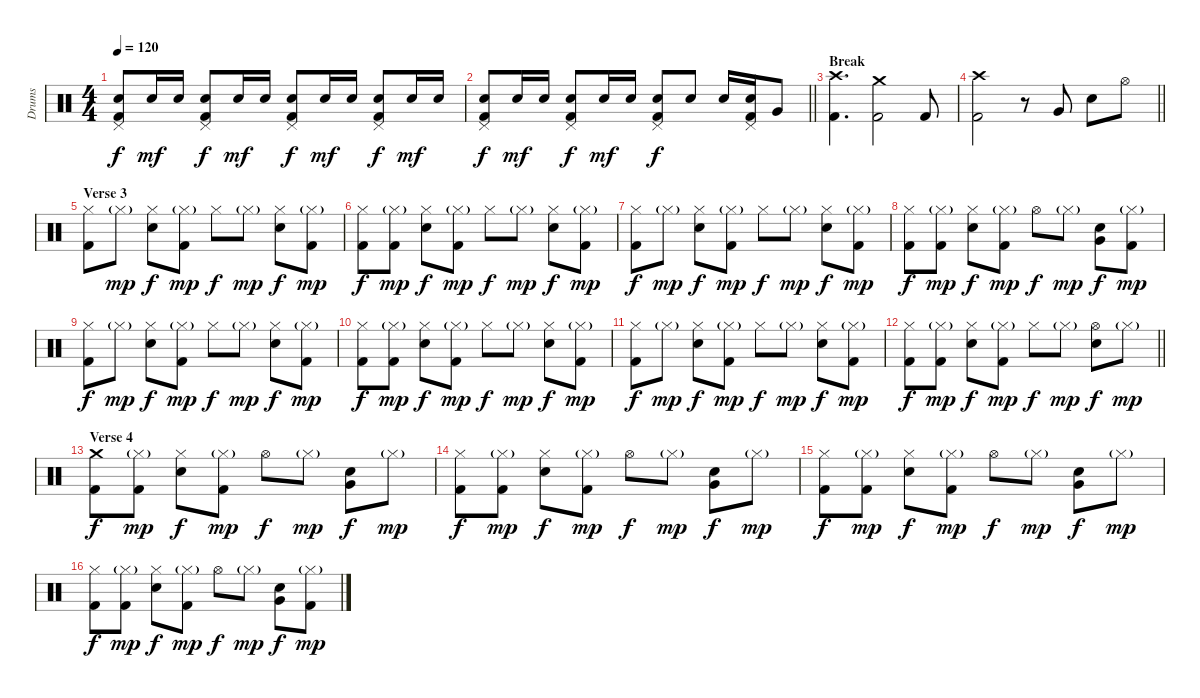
\track ("Drums" "Drums") {instrument percussion}
\staff {score}
\articulation defaults
\ts (4 4)
\tempo 120
\clef neutral
\ks c
("Pedal Hi-Hat (hit)" "Electric Snare (hit)" "Kick (hit) 2").8{dy f} "Electric Snare (hit)".16{dy mf} "Electric Snare (hit)".16 ("Pedal Hi-Hat (hit)" "Electric Snare (hit)" "Kick (hit) 2").8{dy f} "Electric Snare (hit)".16{dy mf} "Electric Snare (hit)".16 ("Pedal Hi-Hat (hit)" "Electric Snare (hit)" "Kick (hit) 2").8{dy f} "Electric Snare (hit)".16{dy mf} "Electric Snare (hit)".16 ("Pedal Hi-Hat (hit)" "Electric Snare (hit)" "Kick (hit) 2").8{dy f} "Electric Snare (hit)".16{dy mf} "Electric Snare (hit)".16 |
\barLineRight lightlight
("Pedal Hi-Hat (hit)" "Electric Snare (hit)" "Kick (hit) 2").8{dy f} "Electric Snare (hit)".16{dy mf} "Electric Snare (hit)".16 ("Pedal Hi-Hat (hit)" "Electric Snare (hit)" "Kick (hit) 2").8{dy f} "Electric Snare (hit)".16{dy mf} "Electric Snare (hit)".16 ("Pedal Hi-Hat (hit)" "Electric Snare (hit)" "Kick (hit) 2").8{dy f} "Electric Snare (hit)".8 "Electric Snare (hit)".16 ("Pedal Hi-Hat (hit)" "Electric Snare (hit)" "Kick (hit) 2").16 "Very Low Tom (hit)".8 |
\section ("" "Break")
("Crash high (hit)" "Kick (hit) 2").4{d} ("Crash medium (hit)" "Kick (hit) 2").2 "Kick (hit) 2".8 |
\barLineRight lightlight
("Crash high (hit)" "Kick (hit) 2").2 r.8 "Very Low Tom (hit)".8 "Electric Snare (hit)".8 "Hi-Hat (open)".8 |
\section ("" "Verse 3")
("Hi-Hat (closed)" "Kick (hit) 2").8 "Hi-Hat (closed)"{g}.8{dy mp} ("Hi-Hat (closed)" "Electric Snare (hit)").8{dy f} ("Hi-Hat (closed)"{g} "Kick (hit) 2").8{dy mp} "Hi-Hat (closed)".8{dy f} "Hi-Hat (closed)"{g}.8{dy mp} ("Hi-Hat (closed)" "Electric Snare (hit)").8{dy f} ("Hi-Hat (closed)"{g} "Kick (hit) 2").8{dy mp} |
("Hi-Hat (closed)" "Kick (hit) 2").8{dy f} ("Hi-Hat (closed)"{g} "Kick (hit) 2").8{dy mp} ("Hi-Hat (closed)" "Electric Snare (hit)").8{dy f} ("Hi-Hat (closed)"{g} "Kick (hit) 2").8{dy mp} "Hi-Hat (closed)".8{dy f} "Hi-Hat (closed)"{g}.8{dy mp} ("Hi-Hat (closed)" "Electric Snare (hit)").8{dy f} ("Hi-Hat (closed)"{g} "Kick (hit) 2").8{dy mp} |
("Hi-Hat (closed)" "Kick (hit) 2").8{dy f} "Hi-Hat (closed)"{g}.8{dy mp} ("Hi-Hat (closed)" "Electric Snare (hit)").8{dy f} ("Hi-Hat (closed)"{g} "Kick (hit) 2").8{dy mp} "Hi-Hat (closed)".8{dy f} "Hi-Hat (closed)"{g}.8{dy mp} ("Hi-Hat (closed)" "Electric Snare (hit)").8{dy f} ("Hi-Hat (closed)"{g} "Kick (hit) 2").8{dy mp} |
("Hi-Hat (closed)" "Kick (hit) 2").8{dy f} ("Hi-Hat (closed)"{g} "Kick (hit) 2").8{dy mp} ("Hi-Hat (closed)" "Electric Snare (hit)").8{dy f} ("Hi-Hat (closed)"{g} "Kick (hit) 2").8{dy mp} "Hi-Hat (open)".8{dy f} "Hi-Hat (closed)"{g}.8{dy mp} ("Very Low Tom (hit)" "Electric Snare (hit)").8{dy f} ("Hi-Hat (closed)"{g} "Kick (hit) 2").8{dy mp} |
("Hi-Hat (closed)" "Kick (hit) 2").8{dy f} "Hi-Hat (closed)"{g}.8{dy mp} ("Hi-Hat (closed)" "Electric Snare (hit)").8{dy f} ("Hi-Hat (closed)"{g} "Kick (hit) 2").8{dy mp} "Hi-Hat (closed)".8{dy f} "Hi-Hat (closed)"{g}.8{dy mp} ("Hi-Hat (closed)" "Electric Snare (hit)").8{dy f} ("Hi-Hat (closed)"{g} "Kick (hit) 2").8{dy mp} |
("Hi-Hat (closed)" "Kick (hit) 2").8{dy f} ("Hi-Hat (closed)"{g} "Kick (hit) 2").8{dy mp} ("Hi-Hat (closed)" "Electric Snare (hit)").8{dy f} ("Hi-Hat (closed)"{g} "Kick (hit) 2").8{dy mp} "Hi-Hat (closed)".8{dy f} "Hi-Hat (closed)"{g}.8{dy mp} ("Hi-Hat (closed)" "Electric Snare (hit)").8{dy f} ("Hi-Hat (closed)"{g} "Kick (hit) 2").8{dy mp} |
("Hi-Hat (closed)" "Kick (hit) 2").8{dy f} "Hi-Hat (closed)"{g}.8{dy mp} ("Hi-Hat (closed)" "Electric Snare (hit)").8{dy f} ("Hi-Hat (closed)"{g} "Kick (hit) 2").8{dy mp} "Hi-Hat (closed)".8{dy f} "Hi-Hat (closed)"{g}.8{dy mp} ("Hi-Hat (closed)" "Electric Snare (hit)").8{dy f} ("Hi-Hat (closed)"{g} "Kick (hit) 2").8{dy mp} |
\barLineRight lightlight
("Hi-Hat (closed)" "Kick (hit) 2").8{dy f} ("Hi-Hat (closed)"{g} "Kick (hit) 2").8{dy mp} ("Hi-Hat (closed)" "Electric Snare (hit)").8{dy f} ("Hi-Hat (closed)"{g} "Kick (hit) 2").8{dy mp} "Hi-Hat (closed)".8{dy f} "Hi-Hat (closed)"{g}.8{dy mp} ("Hi-Hat (open)" "Electric Snare (hit)").8{dy f} "Hi-Hat (closed)"{g}.8{dy mp} |
\section ("" "Verse 4")
("Crash medium (hit)" "Kick (hit) 2").8{dy f} ("Hi-Hat (closed)"{g} "Kick (hit) 2").8{dy mp} ("Hi-Hat (closed)" "Electric Snare (hit)").8{dy f} ("Hi-Hat (closed)"{g} "Kick (hit) 2").8{dy mp} "Hi-Hat (open)".8{dy f} "Hi-Hat (closed)"{g}.8{dy mp} ("Very Low Tom (hit)" "Electric Snare (hit)").8{dy f} "Hi-Hat (closed)"{g}.8{dy mp} |
("Hi-Hat (closed)" "Kick (hit) 2").8{dy f} ("Hi-Hat (closed)"{g} "Kick (hit) 2").8{dy mp} ("Hi-Hat (closed)" "Electric Snare (hit)").8{dy f} ("Hi-Hat (closed)"{g} "Kick (hit) 2").8{dy mp} "Hi-Hat (open)".8{dy f} "Hi-Hat (closed)"{g}.8{dy mp} ("Very Low Tom (hit)" "Electric Snare (hit)").8{dy f} "Hi-Hat (closed)"{g}.8{dy mp} |
("Hi-Hat (closed)" "Kick (hit) 2").8{dy f} ("Hi-Hat (closed)"{g} "Kick (hit) 2").8{dy mp} ("Hi-Hat (closed)" "Electric Snare (hit)").8{dy f} ("Hi-Hat (closed)"{g} "Kick (hit) 2").8{dy mp} "Hi-Hat (open)".8{dy f} "Hi-Hat (closed)"{g}.8{dy mp} ("Very Low Tom (hit)" "Electric Snare (hit)").8{dy f} "Hi-Hat (closed)"{g}.8{dy mp} |
("Hi-Hat (closed)" "Kick (hit) 2").8{dy f} ("Hi-Hat (closed)"{g} "Kick (hit) 2").8{dy mp} ("Hi-Hat (closed)" "Electric Snare (hit)").8{dy f} ("Hi-Hat (closed)"{g} "Kick (hit) 2").8{dy mp} "Hi-Hat (open)".8{dy f} "Hi-Hat (closed)"{g}.8{dy mp} ("Very Low Tom (hit)" "Electric Snare (hit)").8{dy f} ("Hi-Hat (closed)"{g} "Kick (hit) 2").8{dy mp}
